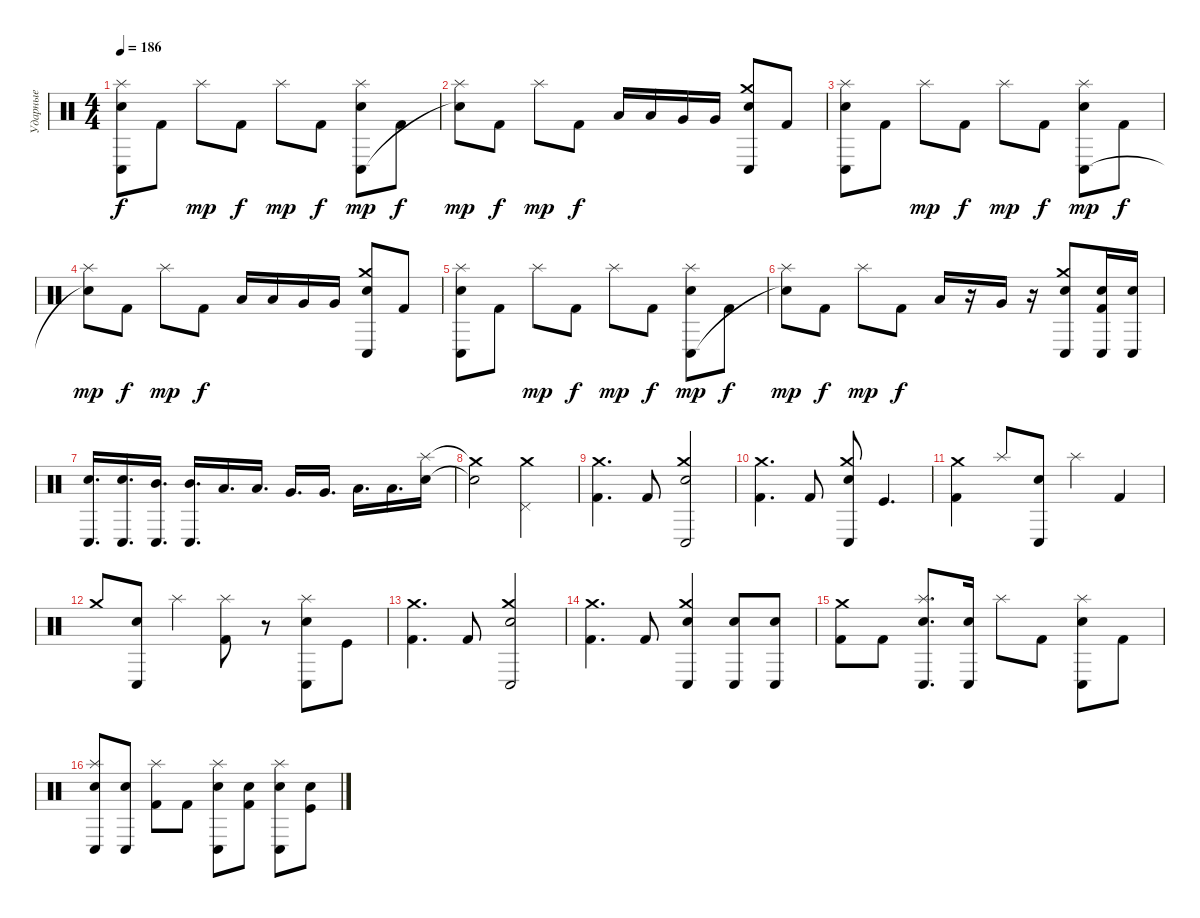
\track ("Ударные" "Ударные") {instrument percussion}
\staff {score}
\articulation defaults
\ts (4 4)
\tempo 186
\clef neutral
\ks c
("Splash (hit)" "Conga low (hit)" "Electric Snare (hit)").8{dy f} "Kick (hit) 2".8 "Splash (hit)".8{dy mp} "Kick (hit) 2".8{dy f} "Splash (hit)".8{dy mp} "Kick (hit) 2".8{dy f} ("Splash (hit)" "Conga low (hit)" "Electric Snare (hit)").8{dy mp} "Kick (hit) 2".8{dy f} |
("Splash (hit)" "Snare (hit)"{t}).8{dy mp} "Kick (hit) 2".8{dy f} "Splash (hit)".8{dy mp} "Kick (hit) 2".8{dy f} "Low Tom (hit)".16 "Low Tom (hit)".16 "Very Low Tom (hit)".16 "Very Low Tom (hit)".16 ("Crash medium (hit)" "Conga low (hit)" "Electric Snare (hit)").8 "Kick (hit) 2".8 |
("Splash (hit)" "Conga low (hit)" "Electric Snare (hit)").8 "Kick (hit) 2".8 "Splash (hit)".8{dy mp} "Kick (hit) 2".8{dy f} "Splash (hit)".8{dy mp} "Kick (hit) 2".8{dy f} ("Splash (hit)" "Conga low (hit)" "Electric Snare (hit)").8{dy mp} "Kick (hit) 2".8{dy f} |
("Splash (hit)" "Snare (hit)"{t}).8{dy mp} "Kick (hit) 2".8{dy f} "Splash (hit)".8{dy mp} "Kick (hit) 2".8{dy f} "Low Tom (hit)".16 "Low Tom (hit)".16 "Very Low Tom (hit)".16 "Very Low Tom (hit)".16 ("Crash medium (hit)" "Conga low (hit)" "Electric Snare (hit)").8 "Kick (hit) 2".8 |
("Splash (hit)" "Conga low (hit)" "Electric Snare (hit)").8 "Kick (hit) 2".8 "Splash (hit)".8{dy mp} "Kick (hit) 2".8{dy f} "Splash (hit)".8{dy mp} "Kick (hit) 2".8{dy f} ("Splash (hit)" "Conga low (hit)" "Electric Snare (hit)").8{dy mp} "Kick (hit) 2".8{dy f} |
("Splash (hit)" "Snare (hit)"{t}).8{dy mp} "Kick (hit) 2".8{dy f} "Splash (hit)".8{dy mp} "Kick (hit) 2".8{dy f} "Low Tom (hit)".16 r.16 "Very Low Tom (hit)".16 r.16 ("Crash medium (hit)" "Conga low (hit)" "Electric Snare (hit)").8 ("Conga low (hit)" "Electric Snare (hit)" "Kick (hit) 2").16 ("Conga low (hit)" "Electric Snare (hit)").16 |
("Conga low (hit)" "Electric Snare (hit)").16{d} ("Conga low (hit)" "Electric Snare (hit)").16{d} ("Conga low (hit)" "Mid Tom (hit)").16{d} ("Conga low (hit)" "Mid Tom (hit)").16{d} "Low Tom (hit)".16{d} "Low Tom (hit)".16{d} "Very Low Tom (hit)".16{d} "Very Low Tom (hit)".16{d} "Low Floor Tom (hit)".16{d} "Low Floor Tom (hit)".16{d} ("Splash (hit)" "Electric Snare (hit)").16 |
("Crash medium (hit)"{t} "Electric Snare (hit)"{t}).2 ("Pedal Hi-Hat (hit)" "Crash medium (hit)").2 |
("Crash medium (hit)" "Kick (hit) 2").4{d} "Kick (hit) 2".8 ("Crash medium (hit)" "Conga low (hit)" "Electric Snare (hit)").2 |
("Crash medium (hit)" "Kick (hit) 2").4{d} "Kick (hit) 2".8 ("Crash medium (hit)" "Conga low (hit)" "Electric Snare (hit)").8 "Kick (hit)".4{d} |
("Crash medium (hit)" "Kick (hit) 2").4 "Splash (hit)".8 ("Conga low (hit)" "Electric Snare (hit)").8 "Splash (hit)".4 "Kick (hit) 2".4 |
"Crash medium (hit)".8 ("Conga low (hit)" "Electric Snare (hit)").8 "Splash (hit)".4 ("Splash (hit)" "Kick (hit) 2").8 r.8 ("Splash (hit)" "Conga low (hit)" "Electric Snare (hit)").8 "Kick (hit)".8 |
("Crash medium (hit)" "Kick (hit) 2").4{d} "Kick (hit) 2".8 ("Crash medium (hit)" "Conga low (hit)" "Electric Snare (hit)").2 |
("Crash medium (hit)" "Kick (hit) 2").4{d} "Kick (hit) 2".8 ("Crash medium (hit)" "Conga low (hit)" "Electric Snare (hit)").4 ("Conga low (hit)" "Electric Snare (hit)").8 ("Conga low (hit)" "Electric Snare (hit)").8 |
("Crash medium (hit)" "Kick (hit) 2").8 "Kick (hit) 2".8 ("Splash (hit)" "Conga low (hit)" "Electric Snare (hit)").8{d} ("Conga low (hit)" "Electric Snare (hit)").16 "Splash (hit)".8 "Kick (hit) 2".8 ("Splash (hit)" "Conga low (hit)" "Electric Snare (hit)").8 "Kick (hit) 2".8 |
("Splash (hit)" "Conga low (hit)" "Electric Snare (hit)").8 ("Conga low (hit)" "Electric Snare (hit)").8 ("Splash (hit)" "Kick (hit) 2").8 "Kick (hit) 2".8 ("Splash (hit)" "Conga low (hit)" "Electric Snare (hit)").8 ("Electric Snare (hit)" "Kick (hit) 2").8 ("Splash (hit)" "Conga low (hit)" "Electric Snare (hit)").8 ("Electric Snare (hit)" "Kick (hit)").8
